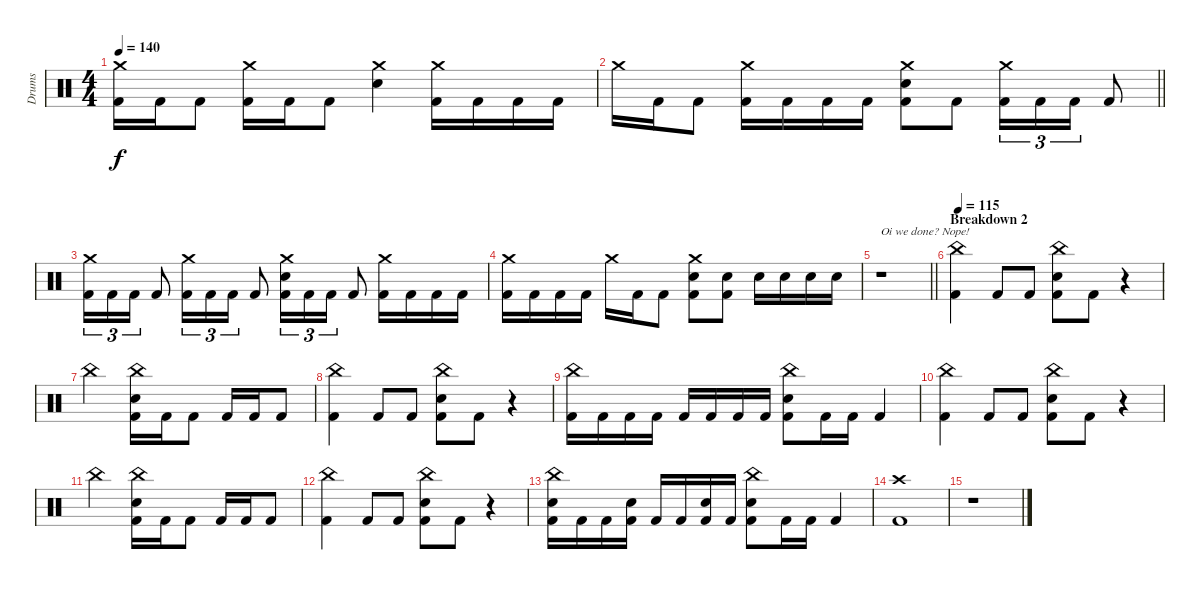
\track ("Drums" "Drums") {instrument percussion}
\staff {score}
\articulation defaults
\ts (4 4)
\tempo 140
\clef neutral
\ks c
("Crash medium (hit)" "Kick (hit) 2").16{dy f} "Kick (hit) 2".16 "Kick (hit) 2".8 ("Crash medium (hit)" "Kick (hit) 2").16 "Kick (hit) 2".16 "Kick (hit) 2".8 ("Crash medium (hit)" "Electric Snare (hit)").4 ("Crash medium (hit)" "Kick (hit) 2").16 "Kick (hit) 2".16 "Kick (hit) 2".16 "Kick (hit) 2".16 |
\barLineRight lightlight "Crash medium (hit)".16 "Kick (hit) 2".16 "Kick (hit) 2".8
("Crash medium (hit)" "Kick (hit) 2").16 "Kick (hit) 2".16 "Kick (hit) 2".16 "Kick (hit) 2".16 ("Crash medium (hit)" "Electric Snare (hit)" "Kick (hit) 2").8 "Kick (hit) 2".8 ("Crash medium (hit)" "Kick (hit) 2").16{tu (3 2)} "Kick (hit) 2".16{tu (3 2)} "Kick (hit) 2".16{tu (3 2)} "Kick (hit) 2".8 |
("Crash medium (hit)" "Kick (hit) 2").16{tu (3 2)} "Kick (hit) 2".16{tu (3 2)} "Kick (hit) 2".16{tu (3 2)} "Kick (hit) 2".8 ("Crash medium (hit)" "Kick (hit) 2").16{tu (3 2)} "Kick (hit) 2".16{tu (3 2)} "Kick (hit) 2".16{tu (3 2)} "Kick (hit) 2".8 ("Crash medium (hit)" "Electric Snare (hit)" "Kick (hit) 2").16{tu (3 2)} "Kick (hit) 2".16{tu (3 2)} "Kick (hit) 2".16{tu (3 2)} "Kick (hit) 2".8 ("Crash medium (hit)" "Kick (hit) 2").16 "Kick (hit) 2".16 "Kick (hit) 2".16 "Kick (hit) 2".16 |
("Crash medium (hit)" "Kick (hit) 2").16 "Kick (hit) 2".16 "Kick (hit) 2".16 "Kick (hit) 2".16 "Crash medium (hit)".16 "Kick (hit) 2".16 "Kick (hit) 2".8 ("Crash medium (hit)" "Electric Snare (hit)" "Kick (hit) 2").8 ("Electric Snare (hit)" "Kick (hit) 2").8 "Electric Snare (hit)".16 "Electric Snare (hit)".16 "Electric Snare (hit)".16 "Electric Snare (hit)".16 |
\barLineRight lightlight
r.1{txt "Oi we done? Nope!"} |
\section ("" "Breakdown 2")
\tempo 115
("China (hit)" "Kick (hit) 2").4 "Kick (hit) 2".8 "Kick (hit) 2".8 ("China (hit)" "Electric Snare (hit)" "Kick (hit) 2").8 "Kick (hit) 2".8 r.4 |
"China (hit)".2 ("China (hit)" "Electric Snare (hit)" "Kick (hit) 2").16 "Kick (hit) 2".16 "Kick (hit) 2".8 "Kick (hit) 2".16 "Kick (hit) 2".16 "Kick (hit) 2".8 |
("China (hit)" "Kick (hit) 2").4 "Kick (hit) 2".8 "Kick (hit) 2".8 ("China (hit)" "Electric Snare (hit)" "Kick (hit) 2").8 "Kick (hit) 2".8 r.4 |
("China (hit)" "Kick (hit) 2").16 "Kick (hit) 2".16 "Kick (hit) 2".16 "Kick (hit) 2".16 "Kick (hit) 2".16 "Kick (hit) 2".16 "Kick (hit) 2".16 "Kick (hit) 2".16 ("China (hit)" "Electric Snare (hit)" "Kick (hit) 2").8 "Kick (hit) 2".16 "Kick (hit) 2".16 "Kick (hit) 2".4 |
("China (hit)" "Kick (hit) 2").4 "Kick (hit) 2".8 "Kick (hit) 2".8 ("China (hit)" "Electric Snare (hit)" "Kick (hit) 2").8 "Kick (hit) 2".8 r.4 |
"China (hit)".2 ("China (hit)" "Electric Snare (hit)" "Kick (hit) 2").16 "Kick (hit) 2".16 "Kick (hit) 2".8 "Kick (hit) 2".16 "Kick (hit) 2".16 "Kick (hit) 2".8 |
("China (hit)" "Kick (hit) 2").4 "Kick (hit) 2".8 "Kick (hit) 2".8 ("China (hit)" "Electric Snare (hit)" "Kick (hit) 2").8 "Kick (hit) 2".8 r.4 |
("China (hit)" "Electric Snare (hit)" "Kick (hit) 2").16 "Kick (hit) 2".16 "Kick (hit) 2".16 ("Electric Snare (hit)" "Kick (hit) 2").16 "Kick (hit) 2".16 "Kick (hit) 2".16 ("Electric Snare (hit)" "Kick (hit) 2").16 "Kick (hit) 2".16 ("China (hit)" "Electric Snare (hit)" "Kick (hit) 2").8 "Kick (hit) 2".16 "Kick (hit) 2".16 "Kick (hit) 2".4 |
("Crash high (hit)" "Kick (hit) 2").1 |
r.1
